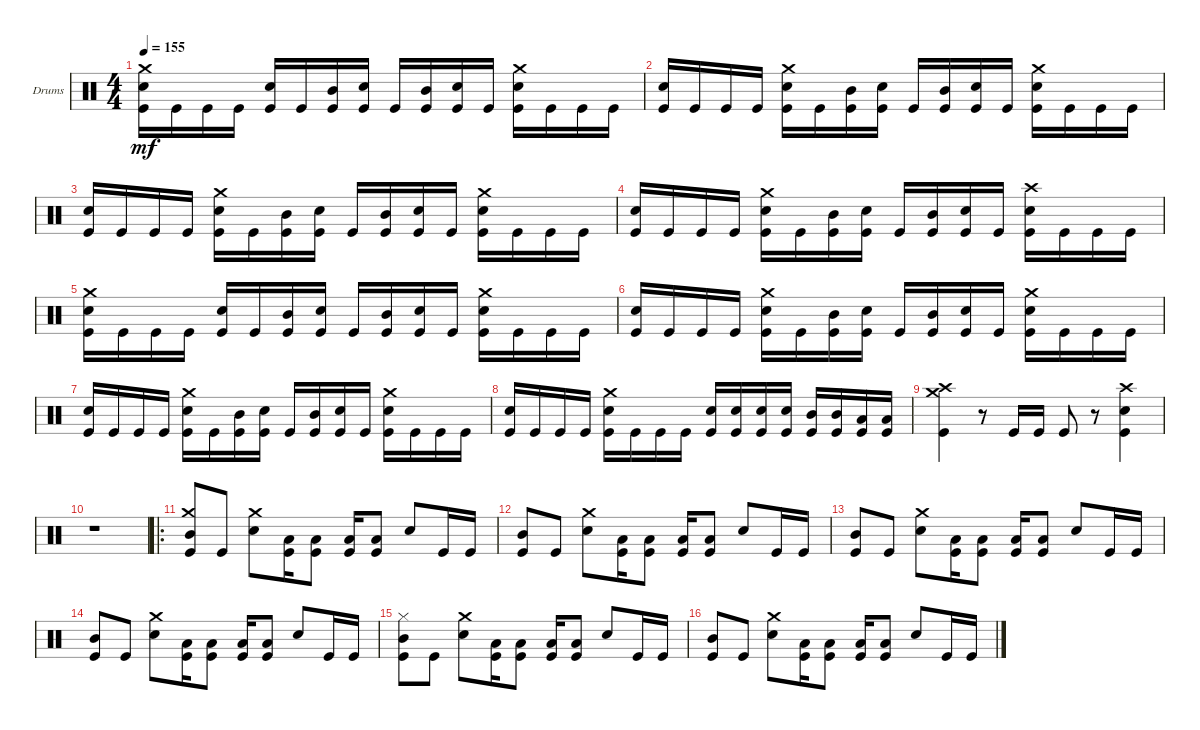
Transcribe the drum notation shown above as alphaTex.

\defaultSystemsLayout 4
\bracketExtendMode groupsimilarinstruments
\firstSystemTrackNameOrientation horizontal
\otherSystemsTrackNameOrientation horizontal
\track ("Drumkit" "Drums") {instrument percussion}
\staff {score}
\articulation defaults
\ts (4 4)
\tempo 155
\clef neutral
\scale
0.333333
\ks c
("Kick (hit)" "Snare (hit) 2" "Crash medium (hit)").16{dy mf} "Kick (hit)".16 "Kick (hit)".16 "Kick (hit)".16 ("Kick (hit)" "Snare (hit) 2").16 "Kick (hit)".16 ("Kick (hit)" "Mid Tom (hit)").16 ("Kick (hit)" "Snare (hit) 2").16 "Kick (hit)".16 ("Kick (hit)" "Mid Tom (hit)").16 ("Kick (hit)" "Snare (hit) 2").16 "Kick (hit)".16 ("Kick (hit)" "Snare (hit) 2" "Crash medium (hit)").16 "Kick (hit)".16 "Kick (hit)".16 "Kick (hit)".16 |
\scale
0.333333 ("Kick (hit)" "Snare (hit) 2").16 "Kick (hit)".16 "Kick (hit)".16 "Kick (hit)".16 ("Kick (hit)" "Snare (hit) 2" "Crash medium (hit)").16 "Kick (hit)".16 ("Kick (hit)" "Mid Tom (hit)").16 ("Kick (hit)" "Snare (hit) 2").16 "Kick (hit)".16 ("Kick (hit)" "Mid Tom (hit)").16 ("Kick (hit)" "Snare (hit) 2").16 "Kick (hit)".16 ("Kick (hit)" "Snare (hit) 2" "Crash medium (hit)").16 "Kick (hit)".16 "Kick (hit)".16 "Kick (hit)".16 |
("Kick (hit)" "Snare (hit) 2").16 "Kick (hit)".16 "Kick (hit)".16 "Kick (hit)".16 ("Kick (hit)" "Snare (hit) 2" "Crash medium (hit)").16 "Kick (hit)".16 ("Kick (hit)" "Mid Tom (hit)").16 ("Kick (hit)" "Snare (hit) 2").16 "Kick (hit)".16 ("Kick (hit)" "Mid Tom (hit)").16 ("Kick (hit)" "Snare (hit) 2").16 "Kick (hit)".16 ("Kick (hit)" "Snare (hit) 2" "Crash medium (hit)").16 "Kick (hit)".16 "Kick (hit)".16 "Kick (hit)".16 |
("Kick (hit)" "Snare (hit) 2").16 "Kick (hit)".16 "Kick (hit)".16 "Kick (hit)".16 ("Kick (hit)" "Snare (hit) 2" "Crash medium (hit)").16 "Kick (hit)".16 ("Kick (hit)" "Mid Tom (hit)").16 ("Kick (hit)" "Snare (hit) 2").16 "Kick (hit)".16 ("Kick (hit)" "Mid Tom (hit)").16 ("Kick (hit)" "Snare (hit) 2").16 "Kick (hit)".16 ("Kick (hit)" "Snare (hit) 2" "Crash high (hit)").16 "Kick (hit)".16 "Kick (hit)".16 "Kick (hit)".16 |
("Kick (hit)" "Snare (hit) 2" "Crash medium (hit)").16 "Kick (hit)".16 "Kick (hit)".16 "Kick (hit)".16 ("Kick (hit)" "Snare (hit) 2").16 "Kick (hit)".16 ("Kick (hit)" "Mid Tom (hit)").16 ("Kick (hit)" "Snare (hit) 2").16 "Kick (hit)".16 ("Kick (hit)" "Mid Tom (hit)").16 ("Kick (hit)" "Snare (hit) 2").16 "Kick (hit)".16 ("Kick (hit)" "Snare (hit) 2" "Crash medium (hit)").16 "Kick (hit)".16 "Kick (hit)".16 "Kick (hit)".16 |
("Kick (hit)" "Snare (hit) 2").16 "Kick (hit)".16 "Kick (hit)".16 "Kick (hit)".16 ("Kick (hit)" "Snare (hit) 2" "Crash medium (hit)").16 "Kick (hit)".16 ("Kick (hit)" "Mid Tom (hit)").16 ("Kick (hit)" "Snare (hit) 2").16 "Kick (hit)".16 ("Kick (hit)" "Mid Tom (hit)").16 ("Kick (hit)" "Snare (hit) 2").16 "Kick (hit)".16 ("Kick (hit)" "Snare (hit) 2" "Crash medium (hit)").16 "Kick (hit)".16 "Kick (hit)".16 "Kick (hit)".16 |
("Kick (hit)" "Snare (hit) 2").16 "Kick (hit)".16 "Kick (hit)".16 "Kick (hit)".16 ("Kick (hit)" "Snare (hit) 2" "Crash medium (hit)").16 "Kick (hit)".16 ("Kick (hit)" "Mid Tom (hit)").16 ("Kick (hit)" "Snare (hit) 2").16 "Kick (hit)".16 ("Kick (hit)" "Mid Tom (hit)").16 ("Kick (hit)" "Snare (hit) 2").16 "Kick (hit)".16 ("Kick (hit)" "Snare (hit) 2" "Crash medium (hit)").16 "Kick (hit)".16 "Kick (hit)".16 "Kick (hit)".16 |
("Kick (hit)" "Snare (hit) 2").16 "Kick (hit)".16 "Kick (hit)".16 "Kick (hit)".16 ("Kick (hit)" "Snare (hit) 2" "Crash medium (hit)").16 "Kick (hit)".16 "Kick (hit)".16 "Kick (hit)".16 ("Kick (hit)" "Snare (hit) 2").16 ("Kick (hit)" "Snare (hit) 2").16 ("Kick (hit)" "Snare (hit) 2").16 ("Kick (hit)" "Snare (hit) 2").16 ("Kick (hit)" "Mid Tom (hit)").16 ("Kick (hit)" "Mid Tom (hit)").16 ("Kick (hit)" "Low Tom (hit)").16 ("Kick (hit)" "Low Tom (hit)").16 |
("Kick (hit)" "Crash medium (hit)" "Crash high (hit)").4 r.8 "Kick (hit)".16 "Kick (hit)".16 "Kick (hit)".8 r.8 ("Kick (hit)" "Snare (hit) 2" "Crash high (hit)").4 |
r.1 |
\ro
("Kick (hit)" "Mid Tom (hit)" "Crash medium (hit)").8 "Kick (hit)".8 ("Snare (hit) 2" "Crash medium (hit)").8 ("Kick (hit)" "Low Tom (hit)").16 ("Kick (hit)" "Low Tom (hit)").8 ("Kick (hit)" "Low Tom (hit)").16 ("Kick (hit)" "Low Tom (hit)").8 "Snare (hit) 2".8 "Kick (hit)".16 "Kick (hit)".16 |
("Kick (hit)" "Mid Tom (hit)").8 "Kick (hit)".8 ("Snare (hit) 2" "Crash medium (hit)").8 ("Kick (hit)" "Low Tom (hit)").16 ("Kick (hit)" "Low Tom (hit)").8 ("Kick (hit)" "Low Tom (hit)").16 ("Kick (hit)" "Low Tom (hit)").8 "Snare (hit) 2".8 "Kick (hit)".16 "Kick (hit)".16 |
("Kick (hit)" "Mid Tom (hit)").8 "Kick (hit)".8 ("Snare (hit) 2" "Crash medium (hit)").8 ("Kick (hit)" "Low Tom (hit)").16 ("Kick (hit)" "Low Tom (hit)").8 ("Kick (hit)" "Low Tom (hit)").16 ("Kick (hit)" "Low Tom (hit)").8 "Snare (hit) 2".8 "Kick (hit)".16 "Kick (hit)".16 |
("Kick (hit)" "Mid Tom (hit)").8 "Kick (hit)".8 ("Snare (hit) 2" "Crash medium (hit)").8 ("Kick (hit)" "Low Tom (hit)").16 ("Kick (hit)" "Low Tom (hit)").8 ("Kick (hit)" "Low Tom (hit)").16 ("Kick (hit)" "Low Tom (hit)").8 "Snare (hit) 2".8 "Kick (hit)".16 "Kick (hit)".16 |
("Kick (hit)" "Mid Tom (hit)" "Hi-Hat (closed)").8 "Kick (hit)".8 ("Snare (hit) 2" "Crash medium (hit)").8 ("Kick (hit)" "Low Tom (hit)").16 ("Kick (hit)" "Low Tom (hit)").8 ("Kick (hit)" "Low Tom (hit)").16 ("Kick (hit)" "Low Tom (hit)").8 "Snare (hit) 2".8 "Kick (hit)".16 "Kick (hit)".16 |
("Kick (hit)" "Mid Tom (hit)").8 "Kick (hit)".8 ("Snare (hit) 2" "Crash medium (hit)").8 ("Kick (hit)" "Low Tom (hit)").16 ("Kick (hit)" "Low Tom (hit)").8 ("Kick (hit)" "Low Tom (hit)").16 ("Kick (hit)" "Low Tom (hit)").8 "Snare (hit) 2".8 "Kick (hit)".16 "Kick (hit)".16
